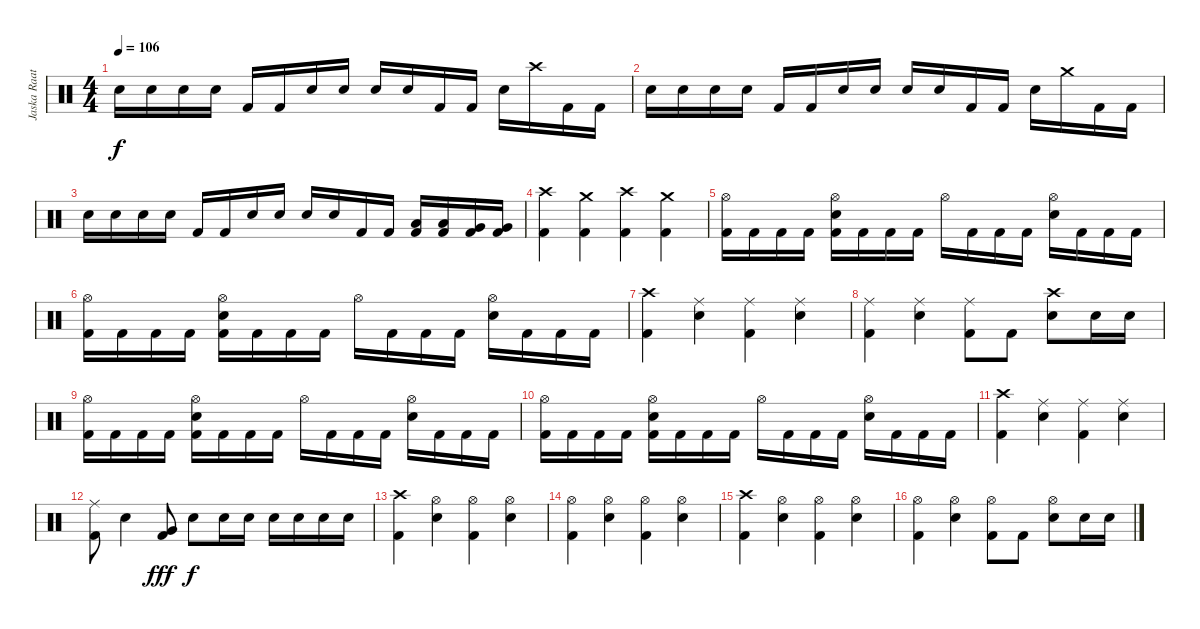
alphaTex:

\track ("Jaska Raatikainen" "Jaska Raat") {instrument percussion}
\staff {score}
\articulation defaults
\ts (4 4)
\tempo 106
\clef neutral
\ks c "Snare (hit) 2".16{dy f} "Snare (hit) 2".16 "Snare (hit) 2".16 "Snare (hit) 2".16 "Kick (hit) 2".16 "Kick (hit) 2".16 "Snare (hit) 2".16 "Snare (hit) 2".16 "Snare (hit) 2".16 "Snare (hit) 2".16 "Kick (hit) 2".16 "Kick (hit) 2".16 "Snare (hit) 2".16 "Crash high (hit)".16 "Kick (hit) 2".16 "Kick (hit) 2".16
|
"Snare (hit) 2".16 "Snare (hit) 2".16 "Snare (hit) 2".16 "Snare (hit) 2".16 "Kick (hit) 2".16 "Kick (hit) 2".16 "Snare (hit) 2".16 "Snare (hit) 2".16 "Snare (hit) 2".16 "Snare (hit) 2".16 "Kick (hit) 2".16 "Kick (hit) 2".16 "Snare (hit) 2".16 "Crash medium (hit)".16 "Kick (hit) 2".16 "Kick (hit) 2".16 |
"Snare (hit) 2".16 "Snare (hit) 2".16 "Snare (hit) 2".16 "Snare (hit) 2".16 "Kick (hit) 2".16 "Kick (hit) 2".16 "Snare (hit) 2".16 "Snare (hit) 2".16 "Snare (hit) 2".16 "Snare (hit) 2".16 "Kick (hit) 2".16 "Kick (hit) 2".16 ("Kick (hit) 2" "Low Tom (hit)").16 ("Kick (hit) 2" "Low Tom (hit)").16 ("Kick (hit) 2" "Very Low Tom (hit)").16 ("Kick (hit) 2" "Very Low Tom (hit)").16 |
("Kick (hit) 2" "Crash high (hit)").4 ("Kick (hit) 2" "Crash medium (hit)").4 ("Kick (hit) 2" "Crash high (hit)").4 ("Kick (hit) 2" "Crash medium (hit)").4 |
("Kick (hit) 2" "Hi-Hat (open)").16 "Kick (hit) 2".16 "Kick (hit) 2".16 "Kick (hit) 2".16 ("Kick (hit) 2" "Hi-Hat (open)" "Snare (hit) 2").16 "Kick (hit) 2".16 "Kick (hit) 2".16 "Kick (hit) 2".16 "Hi-Hat (open)".16 "Kick (hit) 2".16 "Kick (hit) 2".16 "Kick (hit) 2".16 ("Hi-Hat (open)" "Snare (hit) 2").16 "Kick (hit) 2".16 "Kick (hit) 2".16 "Kick (hit) 2".16 |
("Kick (hit) 2" "Hi-Hat (open)").16 "Kick (hit) 2".16 "Kick (hit) 2".16 "Kick (hit) 2".16 ("Kick (hit) 2" "Hi-Hat (open)" "Snare (hit) 2").16 "Kick (hit) 2".16 "Kick (hit) 2".16 "Kick (hit) 2".16 "Hi-Hat (open)".16 "Kick (hit) 2".16 "Kick (hit) 2".16 "Kick (hit) 2".16 ("Hi-Hat (open)" "Snare (hit) 2").16 "Kick (hit) 2".16 "Kick (hit) 2".16 "Kick (hit) 2".16 |
("Kick (hit) 2" "Crash high (hit)").4 ("Ride (middle)" "Snare (hit) 2").4 ("Kick (hit) 2" "Ride (middle)").4 ("Ride (middle)" "Snare (hit) 2").4 |
("Kick (hit) 2" "Ride (middle)").4 ("Ride (middle)" "Snare (hit) 2").4 ("Kick (hit) 2" "Ride (middle)").8 "Kick (hit) 2".8 ("Crash high (hit)" "Snare (hit) 2").8 "Snare (hit) 2".16 "Snare (hit) 2".16 |
("Kick (hit) 2" "Hi-Hat (open)").16 "Kick (hit) 2".16 "Kick (hit) 2".16 "Kick (hit) 2".16 ("Kick (hit) 2" "Hi-Hat (open)" "Snare (hit) 2").16 "Kick (hit) 2".16 "Kick (hit) 2".16 "Kick (hit) 2".16 "Hi-Hat (open)".16 "Kick (hit) 2".16 "Kick (hit) 2".16 "Kick (hit) 2".16 ("Hi-Hat (open)" "Snare (hit) 2").16 "Kick (hit) 2".16 "Kick (hit) 2".16 "Kick (hit) 2".16 |
("Kick (hit) 2" "Hi-Hat (open)").16 "Kick (hit) 2".16 "Kick (hit) 2".16 "Kick (hit) 2".16 ("Kick (hit) 2" "Hi-Hat (open)" "Snare (hit) 2").16 "Kick (hit) 2".16 "Kick (hit) 2".16 "Kick (hit) 2".16 "Hi-Hat (open)".16 "Kick (hit) 2".16 "Kick (hit) 2".16 "Kick (hit) 2".16 ("Hi-Hat (open)" "Snare (hit) 2").16 "Kick (hit) 2".16 "Kick (hit) 2".16 "Kick (hit) 2".16 |
("Kick (hit) 2" "Crash high (hit)").4 ("Ride (middle)" "Snare (hit) 2").4 ("Kick (hit) 2" "Ride (middle)").4 ("Ride (middle)" "Snare (hit) 2").4 |
("Kick (hit) 2" "Ride (middle)").8 "Snare (hit) 2".4 ("Kick (hit) 2" "Very Low Tom (hit)").8{dy fff} "Snare (hit) 2".8{dy f} "Snare (hit) 2".16 "Snare (hit) 2".16 "Snare (hit) 2".16 "Snare (hit) 2".16 "Snare (hit) 2".16 "Snare (hit) 2".16 |
("Kick (hit) 2" "Crash high (hit)").4 ("Hi-Hat (open)" "Snare (hit) 2").4 ("Kick (hit) 2" "Hi-Hat (open)").4 ("Hi-Hat (open)" "Snare (hit) 2").4 |
("Kick (hit) 2" "Hi-Hat (open)").4 ("Hi-Hat (open)" "Snare (hit) 2").4 ("Kick (hit) 2" "Hi-Hat (open)").4 ("Hi-Hat (open)" "Snare (hit) 2").4 |
("Kick (hit) 2" "Crash high (hit)").4 ("Hi-Hat (open)" "Snare (hit) 2").4 ("Kick (hit) 2" "Hi-Hat (open)").4 ("Hi-Hat (open)" "Snare (hit) 2").4 |
("Kick (hit) 2" "Hi-Hat (open)").4 ("Hi-Hat (open)" "Snare (hit) 2").4 ("Kick (hit) 2" "Hi-Hat (open)").8 "Kick (hit) 2".8 ("Hi-Hat (open)" "Snare (hit) 2").8 "Snare (hit) 2".16 "Snare (hit) 2".16
